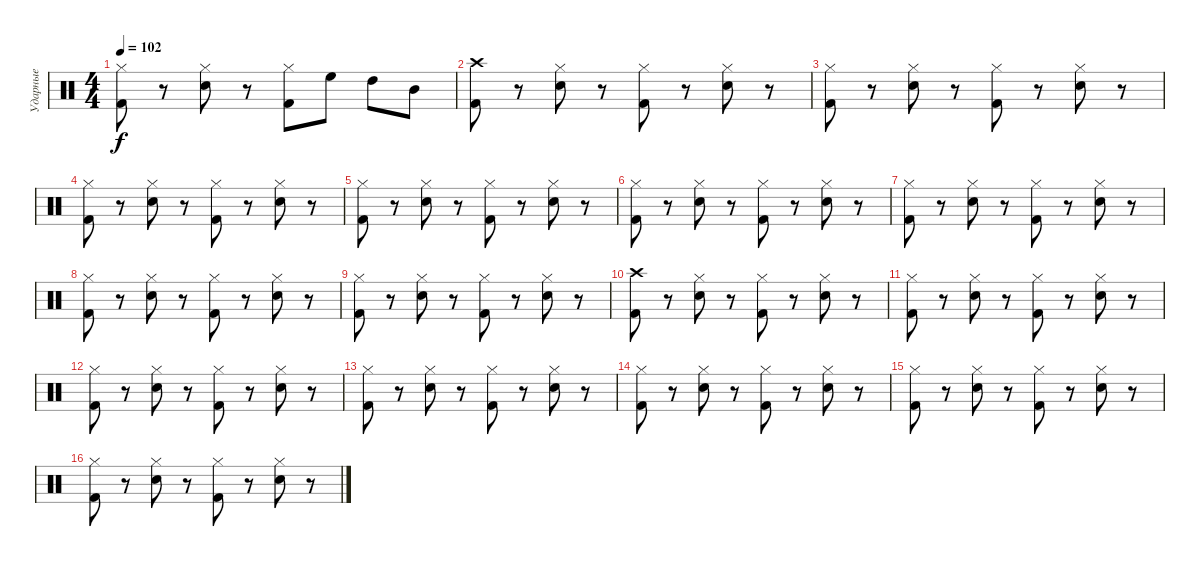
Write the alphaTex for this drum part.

\track ("Ударные" "Ударные") {instrument percussion}
\staff {score}
\articulation defaults
\ts (4 4)
\tempo 102
\clef neutral
\ks c
("Hi-Hat (closed)" "Kick (hit) 2").8{dy f} r.8 ("Hi-Hat (closed)" "Snare (hit) 2").8 r.8 ("Hi-Hat (closed)" "Kick (hit) 2").8 "High Floor Tom (hit)".8 "High Tom (hit)".8 "Mid Tom (hit)".8 |
("Crash high (hit)" "Kick (hit) 2").8 r.8 ("Hi-Hat (closed)" "Snare (hit) 2").8 r.8 ("Hi-Hat (closed)" "Kick (hit) 2").8 r.8 ("Hi-Hat (closed)" "Snare (hit) 2").8 r.8 |
("Hi-Hat (closed)" "Kick (hit) 2").8 r.8 ("Hi-Hat (closed)" "Snare (hit) 2").8 r.8 ("Hi-Hat (closed)" "Kick (hit) 2").8 r.8 ("Hi-Hat (closed)" "Snare (hit) 2").8 r.8 |
("Hi-Hat (closed)" "Kick (hit) 2").8 r.8 ("Hi-Hat (closed)" "Snare (hit) 2").8 r.8 ("Hi-Hat (closed)" "Kick (hit) 2").8 r.8 ("Hi-Hat (closed)" "Snare (hit) 2").8 r.8 |
("Hi-Hat (closed)" "Kick (hit) 2").8 r.8 ("Hi-Hat (closed)" "Snare (hit) 2").8 r.8 ("Hi-Hat (closed)" "Kick (hit) 2").8 r.8 ("Hi-Hat (closed)" "Snare (hit) 2").8 r.8 |
("Hi-Hat (closed)" "Kick (hit) 2").8 r.8 ("Hi-Hat (closed)" "Snare (hit) 2").8 r.8 ("Hi-Hat (closed)" "Kick (hit) 2").8 r.8 ("Hi-Hat (closed)" "Snare (hit) 2").8 r.8 |
("Hi-Hat (closed)" "Kick (hit) 2").8 r.8 ("Hi-Hat (closed)" "Snare (hit) 2").8 r.8 ("Hi-Hat (closed)" "Kick (hit) 2").8 r.8 ("Hi-Hat (closed)" "Snare (hit) 2").8 r.8 |
("Hi-Hat (closed)" "Kick (hit) 2").8 r.8 ("Hi-Hat (closed)" "Snare (hit) 2").8 r.8 ("Hi-Hat (closed)" "Kick (hit) 2").8 r.8 ("Hi-Hat (closed)" "Snare (hit) 2").8 r.8 |
("Hi-Hat (closed)" "Kick (hit) 2").8 r.8 ("Hi-Hat (closed)" "Snare (hit) 2").8 r.8 ("Hi-Hat (closed)" "Kick (hit) 2").8 r.8 ("Hi-Hat (closed)" "Snare (hit) 2").8 r.8 |
("Crash high (hit)" "Kick (hit) 2").8 r.8 ("Hi-Hat (closed)" "Snare (hit) 2").8 r.8 ("Hi-Hat (closed)" "Kick (hit) 2").8 r.8 ("Hi-Hat (closed)" "Snare (hit) 2").8 r.8 |
("Hi-Hat (closed)" "Kick (hit) 2").8 r.8 ("Hi-Hat (closed)" "Snare (hit) 2").8 r.8 ("Hi-Hat (closed)" "Kick (hit) 2").8 r.8 ("Hi-Hat (closed)" "Snare (hit) 2").8 r.8 |
("Hi-Hat (closed)" "Kick (hit) 2").8 r.8 ("Hi-Hat (closed)" "Snare (hit) 2").8 r.8 ("Hi-Hat (closed)" "Kick (hit) 2").8 r.8 ("Hi-Hat (closed)" "Snare (hit) 2").8 r.8 |
("Hi-Hat (closed)" "Kick (hit) 2").8 r.8 ("Hi-Hat (closed)" "Snare (hit) 2").8 r.8 ("Hi-Hat (closed)" "Kick (hit) 2").8 r.8 ("Hi-Hat (closed)" "Snare (hit) 2").8 r.8 |
("Hi-Hat (closed)" "Kick (hit) 2").8 r.8 ("Hi-Hat (closed)" "Snare (hit) 2").8 r.8 ("Hi-Hat (closed)" "Kick (hit) 2").8 r.8 ("Hi-Hat (closed)" "Snare (hit) 2").8 r.8 |
("Hi-Hat (closed)" "Kick (hit) 2").8 r.8 ("Hi-Hat (closed)" "Snare (hit) 2").8 r.8 ("Hi-Hat (closed)" "Kick (hit) 2").8 r.8 ("Hi-Hat (closed)" "Snare (hit) 2").8 r.8 |
("Hi-Hat (closed)" "Kick (hit) 2").8 r.8 ("Hi-Hat (closed)" "Snare (hit) 2").8 r.8 ("Hi-Hat (closed)" "Kick (hit) 2").8 r.8 ("Hi-Hat (closed)" "Snare (hit) 2").8 r.8
